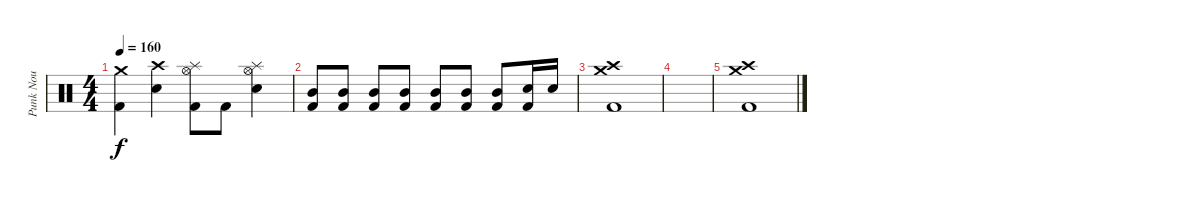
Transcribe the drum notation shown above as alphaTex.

\track ("Punk Nou" "Punk Nou") {instrument percussion}
\staff {score}
\articulation defaults
\ts (4 4)
\tempo 160
\clef neutral
\ks c
("Crash medium (hit)" "Kick (hit) 2").4{dy f} ("Crash high (hit)" "Electric Snare (hit)").4 ("Splash (hit)" "Hi-Hat (open)" "Kick (hit) 2").8 "Kick (hit) 2".8 ("Splash (hit)" "Hi-Hat (open)" "Electric Snare (hit)").4 |
("Mid Tom (hit)" "Kick (hit) 2").8 ("Mid Tom (hit)" "Kick (hit) 2").8 ("Mid Tom (hit)" "Kick (hit) 2").8 ("Mid Tom (hit)" "Kick (hit) 2").8 ("Mid Tom (hit)" "Kick (hit) 2").8 ("Mid Tom (hit)" "Kick (hit) 2").8 ("Mid Tom (hit)" "Kick (hit) 2").8 ("Electric Snare (hit)" "Kick (hit) 2").16 "Electric Snare (hit)".16 |
("Crash high (hit)" "Crash medium (hit)" "Kick (hit) 2").1 |
|
("Crash high (hit)" "Crash medium (hit)" "Kick (hit) 2").1
